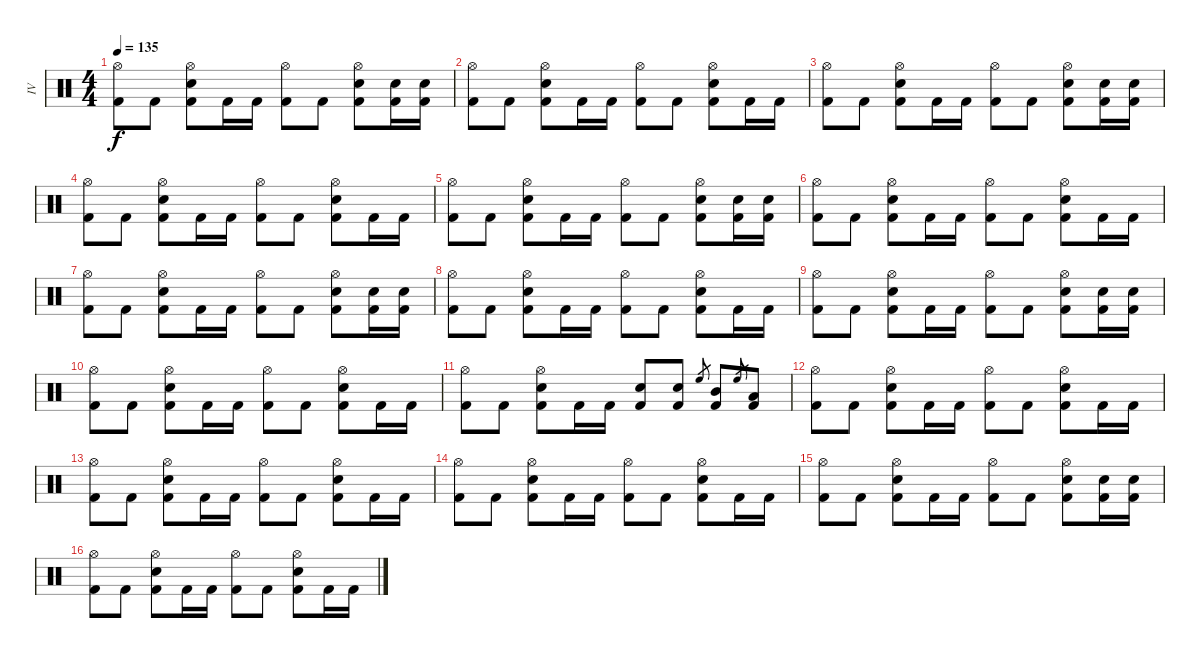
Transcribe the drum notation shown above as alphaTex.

\track ("IV" "IV") {instrument percussion}
\staff {score}
\articulation defaults
\ts (4 4)
\tempo 135
\clef neutral
\ks c
("Hi-Hat (open)" "Kick (hit) 2").8{dy f} "Kick (hit) 2".8 ("Hi-Hat (open)" "Snare (hit) 2" "Kick (hit) 2").8 "Kick (hit) 2".16 "Kick (hit) 2".16 ("Hi-Hat (open)" "Kick (hit) 2").8 "Kick (hit) 2".8 ("Hi-Hat (open)" "Snare (hit) 2" "Kick (hit) 2").8 ("Snare (hit) 2" "Kick (hit) 2").16 ("Snare (hit) 2" "Kick (hit) 2").16 |
("Hi-Hat (open)" "Kick (hit) 2").8 "Kick (hit) 2".8 ("Hi-Hat (open)" "Snare (hit) 2" "Kick (hit) 2").8 "Kick (hit) 2".16 "Kick (hit) 2".16 ("Hi-Hat (open)" "Kick (hit) 2").8 "Kick (hit) 2".8 ("Hi-Hat (open)" "Snare (hit) 2" "Kick (hit) 2").8 "Kick (hit) 2".16 "Kick (hit) 2".16 |
("Hi-Hat (open)" "Kick (hit) 2").8 "Kick (hit) 2".8 ("Hi-Hat (open)" "Snare (hit) 2" "Kick (hit) 2").8 "Kick (hit) 2".16 "Kick (hit) 2".16 ("Hi-Hat (open)" "Kick (hit) 2").8 "Kick (hit) 2".8 ("Hi-Hat (open)" "Snare (hit) 2" "Kick (hit) 2").8 ("Snare (hit) 2" "Kick (hit) 2").16 ("Snare (hit) 2" "Kick (hit) 2").16 |
("Hi-Hat (open)" "Kick (hit) 2").8 "Kick (hit) 2".8 ("Hi-Hat (open)" "Snare (hit) 2" "Kick (hit) 2").8 "Kick (hit) 2".16 "Kick (hit) 2".16 ("Hi-Hat (open)" "Kick (hit) 2").8 "Kick (hit) 2".8 ("Hi-Hat (open)" "Snare (hit) 2" "Kick (hit) 2").8 "Kick (hit) 2".16 "Kick (hit) 2".16 |
("Hi-Hat (open)" "Kick (hit) 2").8 "Kick (hit) 2".8 ("Hi-Hat (open)" "Snare (hit) 2" "Kick (hit) 2").8 "Kick (hit) 2".16 "Kick (hit) 2".16 ("Hi-Hat (open)" "Kick (hit) 2").8 "Kick (hit) 2".8 ("Hi-Hat (open)" "Snare (hit) 2" "Kick (hit) 2").8 ("Snare (hit) 2" "Kick (hit) 2").16 ("Snare (hit) 2" "Kick (hit) 2").16 |
("Hi-Hat (open)" "Kick (hit) 2").8 "Kick (hit) 2".8 ("Hi-Hat (open)" "Snare (hit) 2" "Kick (hit) 2").8 "Kick (hit) 2".16 "Kick (hit) 2".16 ("Hi-Hat (open)" "Kick (hit) 2").8 "Kick (hit) 2".8 ("Hi-Hat (open)" "Snare (hit) 2" "Kick (hit) 2").8 "Kick (hit) 2".16 "Kick (hit) 2".16 |
("Hi-Hat (open)" "Kick (hit) 2").8 "Kick (hit) 2".8 ("Hi-Hat (open)" "Snare (hit) 2" "Kick (hit) 2").8 "Kick (hit) 2".16 "Kick (hit) 2".16 ("Hi-Hat (open)" "Kick (hit) 2").8 "Kick (hit) 2".8 ("Hi-Hat (open)" "Snare (hit) 2" "Kick (hit) 2").8 ("Snare (hit) 2" "Kick (hit) 2").16 ("Snare (hit) 2" "Kick (hit) 2").16 |
("Hi-Hat (open)" "Kick (hit) 2").8 "Kick (hit) 2".8 ("Hi-Hat (open)" "Snare (hit) 2" "Kick (hit) 2").8 "Kick (hit) 2".16 "Kick (hit) 2".16 ("Hi-Hat (open)" "Kick (hit) 2").8 "Kick (hit) 2".8 ("Hi-Hat (open)" "Snare (hit) 2" "Kick (hit) 2").8 "Kick (hit) 2".16 "Kick (hit) 2".16 |
("Hi-Hat (open)" "Kick (hit) 2").8 "Kick (hit) 2".8 ("Hi-Hat (open)" "Snare (hit) 2" "Kick (hit) 2").8 "Kick (hit) 2".16 "Kick (hit) 2".16 ("Hi-Hat (open)" "Kick (hit) 2").8 "Kick (hit) 2".8 ("Hi-Hat (open)" "Snare (hit) 2" "Kick (hit) 2").8 ("Snare (hit) 2" "Kick (hit) 2").16 ("Snare (hit) 2" "Kick (hit) 2").16 |
("Hi-Hat (open)" "Kick (hit) 2").8 "Kick (hit) 2".8 ("Hi-Hat (open)" "Snare (hit) 2" "Kick (hit) 2").8 "Kick (hit) 2".16 "Kick (hit) 2".16 ("Hi-Hat (open)" "Kick (hit) 2").8 "Kick (hit) 2".8 ("Hi-Hat (open)" "Snare (hit) 2" "Kick (hit) 2").8 "Kick (hit) 2".16 "Kick (hit) 2".16 |
("Hi-Hat (open)" "Kick (hit) 2").8 "Kick (hit) 2".8 ("Hi-Hat (open)" "Snare (hit) 2" "Kick (hit) 2").8 "Kick (hit) 2".16 "Kick (hit) 2".16 ("Snare (hit) 2" "Kick (hit) 2").8 ("Snare (hit) 2" "Kick (hit) 2").8 "High Floor Tom (hit)".8{gr} ("Mid Tom (hit)" "Kick (hit) 2").8 "High Floor Tom (hit)".8{gr} ("Low Tom (hit)" "Kick (hit) 2").8 |
("Hi-Hat (open)" "Kick (hit) 2").8 "Kick (hit) 2".8 ("Hi-Hat (open)" "Snare (hit) 2" "Kick (hit) 2").8 "Kick (hit) 2".16 "Kick (hit) 2".16 ("Hi-Hat (open)" "Kick (hit) 2").8 "Kick (hit) 2".8 ("Hi-Hat (open)" "Snare (hit) 2" "Kick (hit) 2").8 "Kick (hit) 2".16 "Kick (hit) 2".16 |
("Hi-Hat (open)" "Kick (hit) 2").8 "Kick (hit) 2".8 ("Hi-Hat (open)" "Snare (hit) 2" "Kick (hit) 2").8 "Kick (hit) 2".16 "Kick (hit) 2".16 ("Hi-Hat (open)" "Kick (hit) 2").8 "Kick (hit) 2".8 ("Hi-Hat (open)" "Snare (hit) 2" "Kick (hit) 2").8 "Kick (hit) 2".16 "Kick (hit) 2".16 |
("Hi-Hat (open)" "Kick (hit) 2").8 "Kick (hit) 2".8 ("Hi-Hat (open)" "Snare (hit) 2" "Kick (hit) 2").8 "Kick (hit) 2".16 "Kick (hit) 2".16 ("Hi-Hat (open)" "Kick (hit) 2").8 "Kick (hit) 2".8 ("Hi-Hat (open)" "Snare (hit) 2" "Kick (hit) 2").8 "Kick (hit) 2".16 "Kick (hit) 2".16 |
("Hi-Hat (open)" "Kick (hit) 2").8 "Kick (hit) 2".8 ("Hi-Hat (open)" "Snare (hit) 2" "Kick (hit) 2").8 "Kick (hit) 2".16 "Kick (hit) 2".16 ("Hi-Hat (open)" "Kick (hit) 2").8 "Kick (hit) 2".8 ("Hi-Hat (open)" "Snare (hit) 2" "Kick (hit) 2").8 ("Snare (hit) 2" "Kick (hit) 2").16 ("Snare (hit) 2" "Kick (hit) 2").16 |
("Hi-Hat (open)" "Kick (hit) 2").8 "Kick (hit) 2".8 ("Hi-Hat (open)" "Snare (hit) 2" "Kick (hit) 2").8 "Kick (hit) 2".16 "Kick (hit) 2".16 ("Hi-Hat (open)" "Kick (hit) 2").8 "Kick (hit) 2".8 ("Hi-Hat (open)" "Snare (hit) 2" "Kick (hit) 2").8 "Kick (hit) 2".16 "Kick (hit) 2".16
